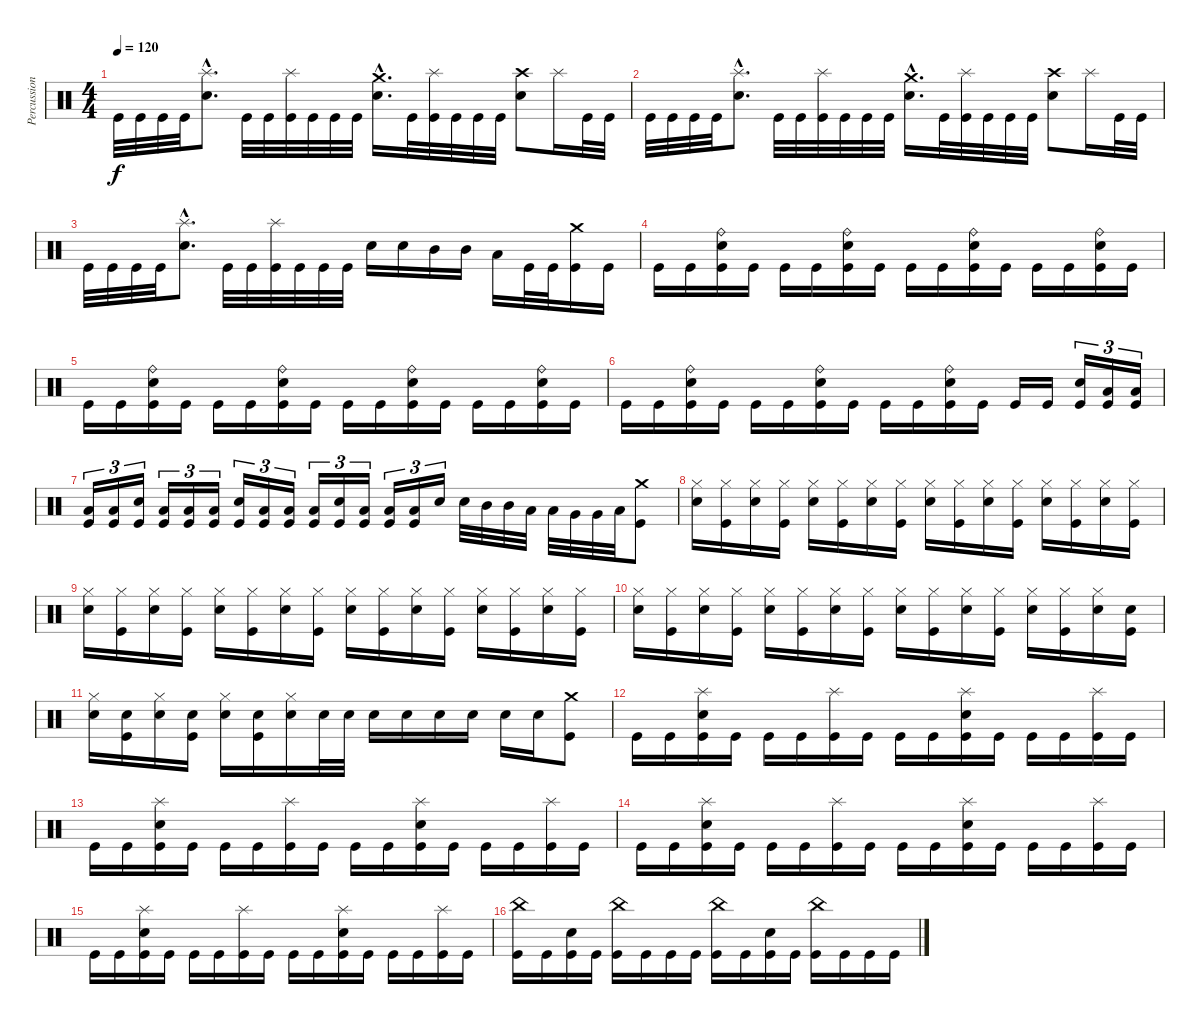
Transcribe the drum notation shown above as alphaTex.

\track ("Percussions" "Percussion") {instrument percussion}
\staff {score}
\articulation defaults
\ts (4 4)
\tempo 120
\clef neutral
\ks c "Kick (hit)".32{dy f} "Kick (hit)".32 "Kick (hit)".32 "Kick (hit)".32
("Electric Snare (hit)"{hac} "Splash (hit)"{hac}).8{d} "Kick (hit)".32 "Kick (hit)".32 ("Kick (hit)" "Splash (hit)").32 "Kick (hit)".32 "Kick (hit)".32 "Kick (hit)".32 ("Electric Snare (hit)"{hac} "Crash medium (hit)"{hac}).16{d} "Kick (hit)".32 ("Kick (hit)" "Splash (hit)").32 "Kick (hit)".32 "Kick (hit)".32 "Kick (hit)".32 ("Electric Snare (hit)" "Crash high (hit)").8 "Splash (hit)".16 "Kick (hit)".32 "Kick (hit)".32 |
"Kick (hit)".32 "Kick (hit)".32 "Kick (hit)".32 "Kick (hit)".32 ("Electric Snare (hit)"{hac} "Splash (hit)"{hac}).8{d} "Kick (hit)".32 "Kick (hit)".32 ("Kick (hit)" "Splash (hit)").32 "Kick (hit)".32 "Kick (hit)".32 "Kick (hit)".32 ("Electric Snare (hit)"{hac} "Crash medium (hit)"{hac}).16{d} "Kick (hit)".32 ("Kick (hit)" "Splash (hit)").32 "Kick (hit)".32 "Kick (hit)".32 "Kick (hit)".32 ("Electric Snare (hit)" "Crash high (hit)").8 "Splash (hit)".16 "Kick (hit)".32 "Kick (hit)".32 |
"Kick (hit)".32 "Kick (hit)".32 "Kick (hit)".32 "Kick (hit)".32 ("Electric Snare (hit)"{hac} "Splash (hit)"{hac}).8{d} "Kick (hit)".32 "Kick (hit)".32 ("Kick (hit)" "Splash (hit)").32 "Kick (hit)".32 "Kick (hit)".32 "Kick (hit)".32 "Electric Snare (hit)".16 "Electric Snare (hit)".16 "Mid Tom (hit)".16 "Mid Tom (hit)".16 "Low Tom (hit)".16 "Kick (hit)".32 "Kick (hit)".32 ("Kick (hit)" "Crash medium (hit)").16 "Kick (hit)".16 |
"Kick (hit)".16 "Kick (hit)".16 ("Kick (hit)" "Electric Snare (hit)" "Ride (bell)").16 "Kick (hit)".16 "Kick (hit)".16 "Kick (hit)".16 ("Kick (hit)" "Electric Snare (hit)" "Ride (bell)").16 "Kick (hit)".16 "Kick (hit)".16 "Kick (hit)".16 ("Kick (hit)" "Electric Snare (hit)" "Ride (bell)").16 "Kick (hit)".16 "Kick (hit)".16 "Kick (hit)".16 ("Kick (hit)" "Electric Snare (hit)" "Ride (bell)").16 "Kick (hit)".16 |
"Kick (hit)".16 "Kick (hit)".16 ("Kick (hit)" "Electric Snare (hit)" "Ride (bell)").16 "Kick (hit)".16 "Kick (hit)".16 "Kick (hit)".16 ("Kick (hit)" "Electric Snare (hit)" "Ride (bell)").16 "Kick (hit)".16 "Kick (hit)".16 "Kick (hit)".16 ("Kick (hit)" "Electric Snare (hit)" "Ride (bell)").16 "Kick (hit)".16 "Kick (hit)".16 "Kick (hit)".16 ("Kick (hit)" "Electric Snare (hit)" "Ride (bell)").16 "Kick (hit)".16 |
"Kick (hit)".16 "Kick (hit)".16 ("Kick (hit)" "Electric Snare (hit)" "Ride (bell)").16 "Kick (hit)".16 "Kick (hit)".16 "Kick (hit)".16 ("Kick (hit)" "Electric Snare (hit)" "Ride (bell)").16 "Kick (hit)".16 "Kick (hit)".16 "Kick (hit)".16 ("Kick (hit)" "Electric Snare (hit)" "Ride (bell)").16 "Kick (hit)".16 "Kick (hit)".16 "Kick (hit)".16 ("Kick (hit)" "Electric Snare (hit)").16{tu (3 2)} ("Kick (hit)" "Low Tom (hit)").16{tu (3 2)} ("Kick (hit)" "Low Tom (hit)").16{tu (3 2)} |
("Kick (hit)" "Low Tom (hit)").16{tu (3 2)} ("Kick (hit)" "Low Tom (hit)").16{tu (3 2)} ("Kick (hit)" "Electric Snare (hit)").16{tu (3 2)} ("Kick (hit)" "Low Tom (hit)").16{tu (3 2)} ("Kick (hit)" "Low Tom (hit)").16{tu (3 2)} ("Kick (hit)" "Low Tom (hit)").16{tu (3 2)} ("Kick (hit)" "Electric Snare (hit)").16{tu (3 2)} ("Kick (hit)" "Low Tom (hit)").16{tu (3 2)} ("Kick (hit)" "Low Tom (hit)").16{tu (3 2)} ("Kick (hit)" "Low Tom (hit)").16{tu (3 2)} ("Kick (hit)" "Electric Snare (hit)").16{tu (3 2)} ("Kick (hit)" "Low Tom (hit)").16{tu (3 2)} ("Kick (hit)" "Low Tom (hit)").16{tu (3 2)} ("Kick (hit)" "Low Tom (hit)").16{tu (3 2)} "Electric Snare (hit)".16{tu (3 2)} "Electric Snare (hit)".32 "Mid Tom (hit)".32 "Mid Tom (hit)".32 "Low Tom (hit)".32 "Low Tom (hit)".32 "Very Low Tom (hit)".32 "Very Low Tom (hit)".32 "Low Floor Tom (hit)".32 ("Kick (hit)" "Crash medium (hit)").8 |
("Electric Snare (hit)" "Hi-Hat (closed)").16 ("Kick (hit)" "Hi-Hat (closed)").16 ("Electric Snare (hit)" "Hi-Hat (closed)").16 ("Kick (hit)" "Hi-Hat (closed)").16 ("Electric Snare (hit)" "Hi-Hat (closed)").16 ("Kick (hit)" "Hi-Hat (closed)").16 ("Electric Snare (hit)" "Hi-Hat (closed)").16 ("Kick (hit)" "Hi-Hat (closed)").16 ("Electric Snare (hit)" "Hi-Hat (closed)").16 ("Kick (hit)" "Hi-Hat (closed)").16 ("Electric Snare (hit)" "Hi-Hat (closed)").16 ("Kick (hit)" "Hi-Hat (closed)").16 ("Electric Snare (hit)" "Hi-Hat (closed)").16 ("Kick (hit)" "Hi-Hat (closed)").16 ("Electric Snare (hit)" "Hi-Hat (closed)").16 ("Kick (hit)" "Hi-Hat (closed)").16 |
("Electric Snare (hit)" "Hi-Hat (closed)").16 ("Kick (hit)" "Hi-Hat (closed)").16 ("Electric Snare (hit)" "Hi-Hat (closed)").16 ("Kick (hit)" "Hi-Hat (closed)").16 ("Electric Snare (hit)" "Hi-Hat (closed)").16 ("Kick (hit)" "Hi-Hat (closed)").16 ("Electric Snare (hit)" "Hi-Hat (closed)").16 ("Kick (hit)" "Hi-Hat (closed)").16 ("Electric Snare (hit)" "Hi-Hat (closed)").16 ("Kick (hit)" "Hi-Hat (closed)").16 ("Electric Snare (hit)" "Hi-Hat (closed)").16 ("Kick (hit)" "Hi-Hat (closed)").16 ("Electric Snare (hit)" "Hi-Hat (closed)").16 ("Kick (hit)" "Hi-Hat (closed)").16 ("Electric Snare (hit)" "Hi-Hat (closed)").16 ("Kick (hit)" "Hi-Hat (closed)").16 |
("Electric Snare (hit)" "Hi-Hat (closed)").16 ("Kick (hit)" "Hi-Hat (closed)").16 ("Electric Snare (hit)" "Hi-Hat (closed)").16 ("Kick (hit)" "Hi-Hat (closed)").16 ("Electric Snare (hit)" "Hi-Hat (closed)").16 ("Kick (hit)" "Hi-Hat (closed)").16 ("Electric Snare (hit)" "Hi-Hat (closed)").16 ("Kick (hit)" "Hi-Hat (closed)").16 ("Electric Snare (hit)" "Hi-Hat (closed)").16 ("Kick (hit)" "Hi-Hat (closed)").16 ("Electric Snare (hit)" "Hi-Hat (closed)").16 ("Kick (hit)" "Hi-Hat (closed)").16 ("Electric Snare (hit)" "Hi-Hat (closed)").16 ("Kick (hit)" "Hi-Hat (closed)").16 ("Electric Snare (hit)" "Hi-Hat (closed)").16 ("Kick (hit)" "Electric Snare (hit)").16 |
("Electric Snare (hit)" "Hi-Hat (closed)").16 ("Kick (hit)" "Electric Snare (hit)").16 ("Electric Snare (hit)" "Hi-Hat (closed)").16 ("Kick (hit)" "Electric Snare (hit)").16 ("Electric Snare (hit)" "Hi-Hat (closed)").16 ("Kick (hit)" "Electric Snare (hit)").16 ("Electric Snare (hit)" "Hi-Hat (closed)").16 "Electric Snare (hit)".32 "Electric Snare (hit)".32 "Electric Snare (hit)".16 "Electric Snare (hit)".16 "Electric Snare (hit)".16 "Electric Snare (hit)".16 "Electric Snare (hit)".16 "Electric Snare (hit)".16 ("Kick (hit)" "Crash medium (hit)").8 |
"Kick (hit)".16 "Kick (hit)".16 ("Kick (hit)" "Electric Snare (hit)" "Splash (hit)").16 "Kick (hit)".16 "Kick (hit)".16 "Kick (hit)".16 ("Kick (hit)" "Splash (hit)").16 "Kick (hit)".16 "Kick (hit)".16 "Kick (hit)".16 ("Kick (hit)" "Electric Snare (hit)" "Splash (hit)").16 "Kick (hit)".16 "Kick (hit)".16 "Kick (hit)".16 ("Kick (hit)" "Splash (hit)").16 "Kick (hit)".16 |
"Kick (hit)".16 "Kick (hit)".16 ("Kick (hit)" "Electric Snare (hit)" "Splash (hit)").16 "Kick (hit)".16 "Kick (hit)".16 "Kick (hit)".16 ("Kick (hit)" "Splash (hit)").16 "Kick (hit)".16 "Kick (hit)".16 "Kick (hit)".16 ("Kick (hit)" "Electric Snare (hit)" "Splash (hit)").16 "Kick (hit)".16 "Kick (hit)".16 "Kick (hit)".16 ("Kick (hit)" "Splash (hit)").16 "Kick (hit)".16 |
"Kick (hit)".16 "Kick (hit)".16 ("Kick (hit)" "Electric Snare (hit)" "Splash (hit)").16 "Kick (hit)".16 "Kick (hit)".16 "Kick (hit)".16 ("Kick (hit)" "Splash (hit)").16 "Kick (hit)".16 "Kick (hit)".16 "Kick (hit)".16 ("Kick (hit)" "Electric Snare (hit)" "Splash (hit)").16 "Kick (hit)".16 "Kick (hit)".16 "Kick (hit)".16 ("Kick (hit)" "Splash (hit)").16 "Kick (hit)".16 |
"Kick (hit)".16 "Kick (hit)".16 ("Kick (hit)" "Electric Snare (hit)" "Splash (hit)").16 "Kick (hit)".16 "Kick (hit)".16 "Kick (hit)".16 ("Kick (hit)" "Splash (hit)").16 "Kick (hit)".16 "Kick (hit)".16 "Kick (hit)".16 ("Kick (hit)" "Electric Snare (hit)" "Splash (hit)").16 "Kick (hit)".16 "Kick (hit)".16 "Kick (hit)".16 ("Kick (hit)" "Splash (hit)").16 "Kick (hit)".16 |
("Kick (hit)" "China (hit)").16 "Kick (hit)".16 ("Kick (hit)" "Electric Snare (hit)").16 "Kick (hit)".16 ("Kick (hit)" "China (hit)").16 "Kick (hit)".16 "Kick (hit)".16 "Kick (hit)".16 ("Kick (hit)" "China (hit)").16 "Kick (hit)".16 ("Kick (hit)" "Electric Snare (hit)").16 "Kick (hit)".16 ("Kick (hit)" "China (hit)").16 "Kick (hit)".16 "Kick (hit)".16 "Kick (hit)".16
